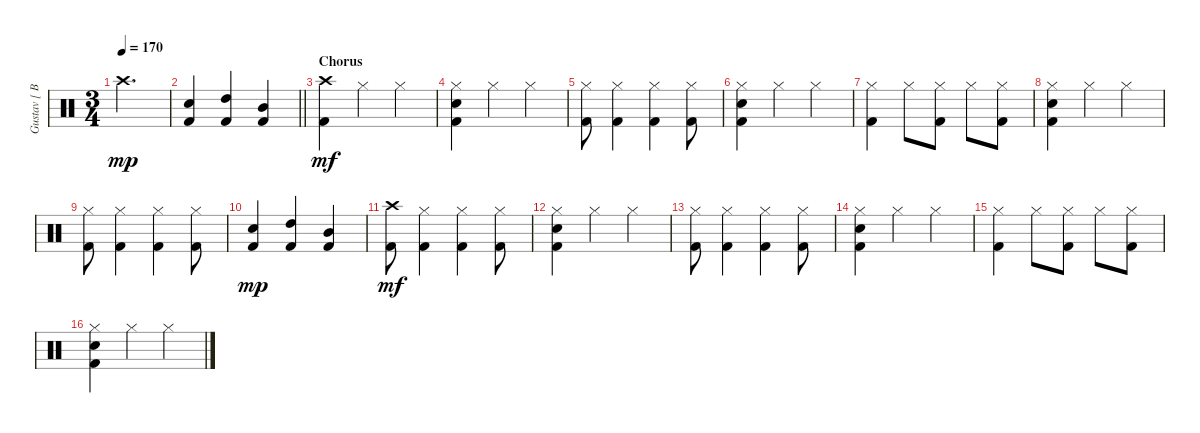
\track ("Gustav [ Batterie ]" "Gustav [ B") {instrument percussion}
\staff {score}
\articulation defaults
\ts (3 4)
\tempo 170
\clef neutral
\ks c "Crash high (hit)".2{d dy mp}
|
\barLineRight lightlight
("Snare (hit) 2" "Kick (hit) 2").4 ("High Tom (hit)" "Kick (hit) 2").4 ("Mid Tom (hit)" "Kick (hit) 2").4 |
\section ("" "Chorus")
("Crash high (hit)" "Kick (hit) 2").4{dy mf} "Hi-Hat (closed)".4 "Hi-Hat (closed)".4 |
("Hi-Hat (closed)" "Snare (hit) 2" "Kick (hit) 2").4 "Hi-Hat (closed)".4 "Hi-Hat (closed)".4 |
("Hi-Hat (closed)" "Kick (hit) 2").8 ("Hi-Hat (closed)" "Kick (hit) 2").4 ("Hi-Hat (closed)" "Kick (hit) 2").4 ("Hi-Hat (closed)" "Kick (hit) 2").8 |
("Hi-Hat (closed)" "Snare (hit) 2" "Kick (hit) 2").4 "Hi-Hat (closed)".4 "Hi-Hat (closed)".4 |
("Hi-Hat (closed)" "Kick (hit) 2").4 "Hi-Hat (closed)".8 ("Hi-Hat (closed)" "Kick (hit) 2").8 "Hi-Hat (closed)".8 ("Hi-Hat (closed)" "Kick (hit) 2").8 |
("Hi-Hat (closed)" "Snare (hit) 2" "Kick (hit) 2").4 "Hi-Hat (closed)".4 "Hi-Hat (closed)".4 |
("Hi-Hat (closed)" "Kick (hit) 2").8 ("Hi-Hat (closed)" "Kick (hit) 2").4 ("Hi-Hat (closed)" "Kick (hit) 2").4 ("Hi-Hat (closed)" "Kick (hit) 2").8 |
("Snare (hit) 2" "Kick (hit) 2").4{dy mp} ("High Tom (hit)" "Kick (hit) 2").4 ("Mid Tom (hit)" "Kick (hit) 2").4 |
("Crash high (hit)" "Kick (hit) 2").8{dy mf} ("Hi-Hat (closed)" "Kick (hit) 2").4 ("Hi-Hat (closed)" "Kick (hit) 2").4 ("Hi-Hat (closed)" "Kick (hit) 2").8 |
("Hi-Hat (closed)" "Snare (hit) 2" "Kick (hit) 2").4 "Hi-Hat (closed)".4 "Hi-Hat (closed)".4 |
("Hi-Hat (closed)" "Kick (hit) 2").8 ("Hi-Hat (closed)" "Kick (hit) 2").4 ("Hi-Hat (closed)" "Kick (hit) 2").4 ("Hi-Hat (closed)" "Kick (hit) 2").8 |
("Hi-Hat (closed)" "Snare (hit) 2" "Kick (hit) 2").4 "Hi-Hat (closed)".4 "Hi-Hat (closed)".4 |
("Hi-Hat (closed)" "Kick (hit) 2").4 "Hi-Hat (closed)".8 ("Hi-Hat (closed)" "Kick (hit) 2").8 "Hi-Hat (closed)".8 ("Hi-Hat (closed)" "Kick (hit) 2").8 |
("Hi-Hat (closed)" "Snare (hit) 2" "Kick (hit) 2").4 "Hi-Hat (closed)".4 "Hi-Hat (closed)".4
